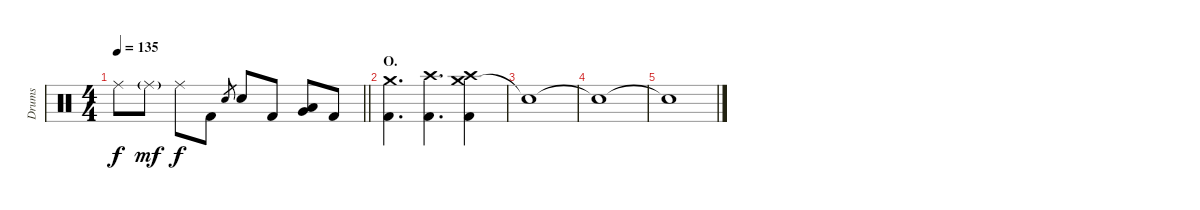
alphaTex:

\track ("Drums" "Drums") {instrument percussion}
\staff {score}
\articulation defaults
\ts (4 4)
\tempo 135
\clef neutral
\barLineRight lightlight
\ks c "Ride (middle)".8{dy f} "Ride (middle)"{g}.8{dy mf} "Ride (middle)".8{dy f} "Kick (hit) 2".8 "Electric Snare (hit)".8{gr} "Electric Snare (hit)".8 "Kick (hit) 2".8
("Very Low Tom (hit)" "Low Floor Tom (hit)").8{bu 120} "Kick (hit) 2".8 |
\section ("" "O.")
("Crash medium (hit)" "Kick (hit) 2").4{d} ("Crash high (hit)" "Kick (hit) 2").4{d} ("Crash medium (hit)" "Crash high (hit)" "Kick (hit) 2").4 |
"Snare (hit)"{t}.1 |
"Snare (hit)"{t}.1 |
"Snare (hit)"{t}.1
